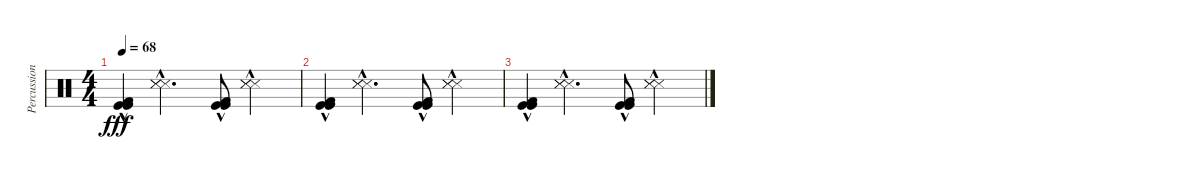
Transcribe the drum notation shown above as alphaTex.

\track ("Percussion (Drums)" "Percussion") {instrument percussion}
\staff {score}
\articulation defaults
\ts (4 4)
\tempo 68
\clef neutral
\ks c
("Kick (hit)"{hac} "Kick (hit) 2"{hac} "Kick (hit)"{hac}).4{dy fff} ("Snare (side stick) 3"{hac} "Snare (side stick) 3"{hac} "Snare (side stick) 3"{hac}).4{d} ("Kick (hit)"{hac} "Kick (hit) 2"{hac} "Kick (hit)"{hac}).8 ("Snare (side stick) 3"{hac} "Snare (side stick) 3"{hac} "Snare (side stick) 3"{hac}).4 |
("Kick (hit)"{hac} "Kick (hit) 2"{hac} "Kick (hit)"{hac}).4 ("Snare (side stick) 3"{hac} "Snare (side stick) 3"{hac} "Snare (side stick) 3"{hac}).4{d} ("Kick (hit)"{hac} "Kick (hit) 2"{hac} "Kick (hit)"{hac}).8 ("Snare (side stick) 3"{hac} "Snare (side stick) 3"{hac} "Snare (side stick) 3"{hac}).4 |
("Kick (hit)"{hac} "Kick (hit) 2"{hac} "Kick (hit)"{hac}).4 ("Snare (side stick) 3"{hac} "Snare (side stick) 3"{hac} "Snare (side stick) 3"{hac}).4{d} ("Kick (hit)"{hac} "Kick (hit) 2"{hac} "Kick (hit)"{hac}).8 ("Snare (side stick) 3"{hac} "Snare (side stick) 3"{hac} "Snare (side stick) 3"{hac}).4
